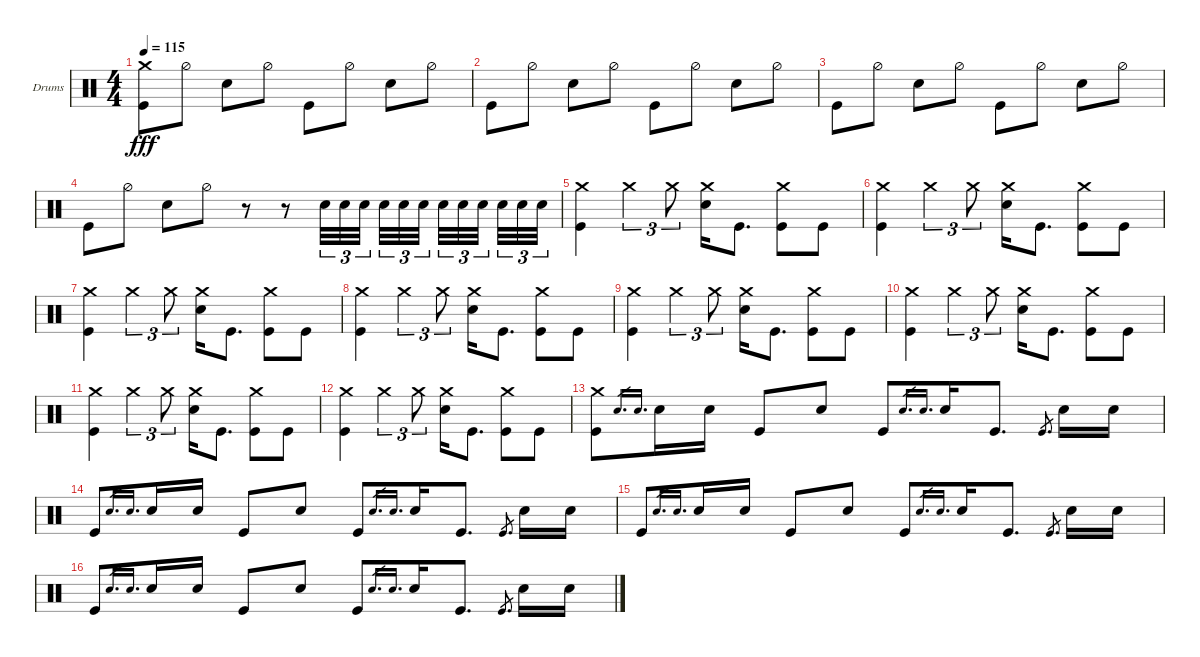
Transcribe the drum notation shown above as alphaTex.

\defaultSystemsLayout 4
\bracketExtendMode groupsimilarinstruments
\firstSystemTrackNameOrientation horizontal
\otherSystemsTrackNameOrientation horizontal
\track ("Drumkit" "Drums") {instrument percussion}
\staff {score}
\articulation defaults
\ts (4 4)
\tempo 115
\clef neutral
\ks c
("Kick (hit)" "Crash medium (hit)").8{dy fff} "Hi-Hat (half)".8 "Snare (hit) 2".8 "Hi-Hat (half)".8 "Kick (hit)".8 "Hi-Hat (half)".8 "Snare (hit) 2".8 "Hi-Hat (half)".8 |
"Kick (hit)".8 "Hi-Hat (half)".8 "Snare (hit) 2".8 "Hi-Hat (half)".8 "Kick (hit)".8 "Hi-Hat (half)".8 "Snare (hit) 2".8 "Hi-Hat (half)".8 |
"Kick (hit)".8 "Hi-Hat (half)".8 "Snare (hit) 2".8 "Hi-Hat (half)".8 "Kick (hit)".8 "Hi-Hat (half)".8 "Snare (hit) 2".8 "Hi-Hat (half)".8 |
"Kick (hit)".8 "Hi-Hat (half)".8 "Snare (hit) 2".8 "Hi-Hat (half)".8 r.8 r.8 "Snare (hit) 2".32{tu (3 2)} "Snare (hit) 2".32{tu (3 2)} "Snare (hit) 2".32{tu (3 2)} "Snare (hit) 2".32{tu (3 2)} "Snare (hit) 2".32{tu (3 2)} "Snare (hit) 2".32{tu (3 2)} "Snare (hit) 2".32{tu (3 2)} "Snare (hit) 2".32{tu (3 2)} "Snare (hit) 2".32{tu (3 2)} "Snare (hit) 2".32{tu (3 2)} "Snare (hit) 2".32{tu (3 2)} "Snare (hit) 2".32{tu (3 2)} |
("Crash medium (hit)" "Kick (hit)").4 "Crash medium (hit)".4{tu (3 2)} "Crash medium (hit)".8{tu (3 2)} ("Crash medium (hit)" "Snare (hit) 2").16 "Kick (hit)".8{d} ("Crash medium (hit)" "Kick (hit)").8 "Kick (hit)".8 |
("Crash medium (hit)" "Kick (hit)").4 "Crash medium (hit)".4{tu (3 2)} "Crash medium (hit)".8{tu (3 2)} ("Crash medium (hit)" "Snare (hit) 2").16 "Kick (hit)".8{d} ("Crash medium (hit)" "Kick (hit)").8 "Kick (hit)".8 |
("Crash medium (hit)" "Kick (hit)").4 "Crash medium (hit)".4{tu (3 2)} "Crash medium (hit)".8{tu (3 2)} ("Crash medium (hit)" "Snare (hit) 2").16 "Kick (hit)".8{d} ("Crash medium (hit)" "Kick (hit)").8 "Kick (hit)".8 |
("Crash medium (hit)" "Kick (hit)").4 "Crash medium (hit)".4{tu (3 2)} "Crash medium (hit)".8{tu (3 2)} ("Crash medium (hit)" "Snare (hit) 2").16 "Kick (hit)".8{d} ("Crash medium (hit)" "Kick (hit)").8 "Kick (hit)".8 |
("Crash medium (hit)" "Kick (hit)").4 "Crash medium (hit)".4{tu (3 2)} "Crash medium (hit)".8{tu (3 2)} ("Crash medium (hit)" "Snare (hit) 2").16 "Kick (hit)".8{d} ("Crash medium (hit)" "Kick (hit)").8 "Kick (hit)".8 |
("Crash medium (hit)" "Kick (hit)").4 "Crash medium (hit)".4{tu (3 2)} "Crash medium (hit)".8{tu (3 2)} ("Crash medium (hit)" "Snare (hit) 2").16 "Kick (hit)".8{d} ("Crash medium (hit)" "Kick (hit)").8 "Kick (hit)".8 |
("Crash medium (hit)" "Kick (hit)").4 "Crash medium (hit)".4{tu (3 2)} "Crash medium (hit)".8{tu (3 2)} ("Crash medium (hit)" "Snare (hit) 2").16 "Kick (hit)".8{d} ("Crash medium (hit)" "Kick (hit)").8 "Kick (hit)".8 |
("Crash medium (hit)" "Kick (hit)").4 "Crash medium (hit)".4{tu (3 2)} "Crash medium (hit)".8{tu (3 2)} ("Crash medium (hit)" "Snare (hit) 2").16 "Kick (hit)".8{d} ("Crash medium (hit)" "Kick (hit)").8 "Kick (hit)".8 |
("Kick (hit)" "Crash medium (hit)").8 "Snare (hit) 2".16{d gr} "Snare (hit) 2".16{d gr} "Snare (hit) 2".16 "Snare (hit) 2".16 "Kick (hit)".8 "Snare (hit) 2".8 "Kick (hit)".8 "Snare (hit) 2".16{d gr} "Snare (hit) 2".16{d gr} "Snare (hit) 2".16 "Kick (hit)".8{d} "Kick (hit)".8{d gr} "Snare (hit) 2".16 "Snare (hit) 2".16 |
"Kick (hit)".8 "Snare (hit) 2".16{d gr} "Snare (hit) 2".16{d gr} "Snare (hit) 2".16 "Snare (hit) 2".16 "Kick (hit)".8 "Snare (hit) 2".8 "Kick (hit)".8 "Snare (hit) 2".16{d gr} "Snare (hit) 2".16{d gr} "Snare (hit) 2".16 "Kick (hit)".8{d} "Kick (hit)".8{d gr} "Snare (hit) 2".16 "Snare (hit) 2".16 |
"Kick (hit)".8 "Snare (hit) 2".16{d gr} "Snare (hit) 2".16{d gr} "Snare (hit) 2".16 "Snare (hit) 2".16 "Kick (hit)".8 "Snare (hit) 2".8 "Kick (hit)".8 "Snare (hit) 2".16{d gr} "Snare (hit) 2".16{d gr} "Snare (hit) 2".16 "Kick (hit)".8{d} "Kick (hit)".8{d gr} "Snare (hit) 2".16 "Snare (hit) 2".16 |
"Kick (hit)".8 "Snare (hit) 2".16{d gr} "Snare (hit) 2".16{d gr} "Snare (hit) 2".16 "Snare (hit) 2".16 "Kick (hit)".8 "Snare (hit) 2".8 "Kick (hit)".8 "Snare (hit) 2".16{d gr} "Snare (hit) 2".16{d gr} "Snare (hit) 2".16 "Kick (hit)".8{d} "Kick (hit)".8{d gr} "Snare (hit) 2".16 "Snare (hit) 2".16
